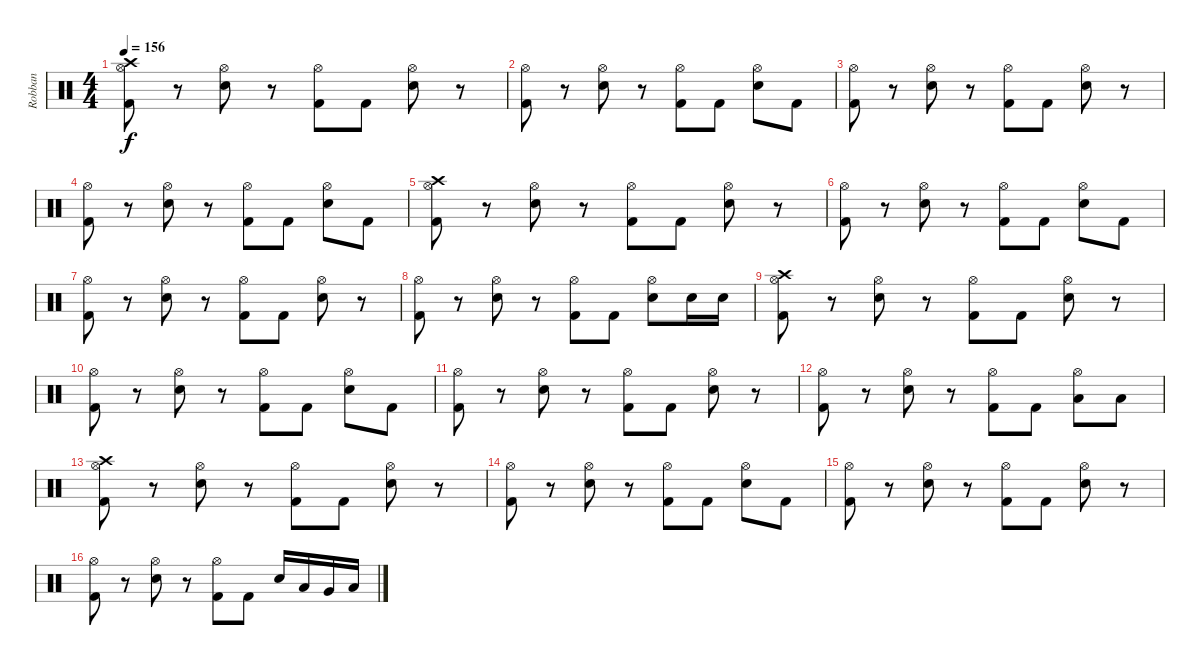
\track ("Robban" "Robban") {instrument percussion}
\staff {score}
\articulation defaults
\ts (4 4)
\tempo 156
\clef neutral
\ks c
("Crash high (hit)" "Hi-Hat (open)" "Kick (hit) 2").8{dy f} r.8 ("Hi-Hat (open)" "Electric Snare (hit)").8 r.8 ("Hi-Hat (open)" "Kick (hit) 2").8 "Kick (hit) 2".8 ("Hi-Hat (open)" "Electric Snare (hit)").8 r.8 |
("Hi-Hat (open)" "Kick (hit) 2").8 r.8 ("Hi-Hat (open)" "Electric Snare (hit)").8 r.8 ("Hi-Hat (open)" "Kick (hit) 2").8 "Kick (hit) 2".8 ("Hi-Hat (open)" "Electric Snare (hit)").8 "Kick (hit) 2".8 |
("Hi-Hat (open)" "Kick (hit) 2").8 r.8 ("Hi-Hat (open)" "Electric Snare (hit)").8 r.8 ("Hi-Hat (open)" "Kick (hit) 2").8 "Kick (hit) 2".8 ("Hi-Hat (open)" "Electric Snare (hit)").8 r.8 |
("Hi-Hat (open)" "Kick (hit) 2").8 r.8 ("Hi-Hat (open)" "Electric Snare (hit)").8 r.8 ("Hi-Hat (open)" "Kick (hit) 2").8 "Kick (hit) 2".8 ("Hi-Hat (open)" "Electric Snare (hit)").8 "Kick (hit) 2".8 |
("Crash high (hit)" "Hi-Hat (open)" "Kick (hit) 2").8 r.8 ("Hi-Hat (open)" "Electric Snare (hit)").8 r.8 ("Hi-Hat (open)" "Kick (hit) 2").8 "Kick (hit) 2".8 ("Hi-Hat (open)" "Electric Snare (hit)").8 r.8 |
("Hi-Hat (open)" "Kick (hit) 2").8 r.8 ("Hi-Hat (open)" "Electric Snare (hit)").8 r.8 ("Hi-Hat (open)" "Kick (hit) 2").8 "Kick (hit) 2".8 ("Hi-Hat (open)" "Electric Snare (hit)").8 "Kick (hit) 2".8 |
("Hi-Hat (open)" "Kick (hit) 2").8 r.8 ("Hi-Hat (open)" "Electric Snare (hit)").8 r.8 ("Hi-Hat (open)" "Kick (hit) 2").8 "Kick (hit) 2".8 ("Hi-Hat (open)" "Electric Snare (hit)").8 r.8 |
("Hi-Hat (open)" "Kick (hit) 2").8 r.8 ("Hi-Hat (open)" "Electric Snare (hit)").8 r.8 ("Hi-Hat (open)" "Kick (hit) 2").8 "Kick (hit) 2".8 ("Hi-Hat (open)" "Electric Snare (hit)").8 "Electric Snare (hit)".16 "Electric Snare (hit)".16 |
("Crash high (hit)" "Hi-Hat (open)" "Kick (hit) 2").8 r.8 ("Hi-Hat (open)" "Electric Snare (hit)").8 r.8 ("Hi-Hat (open)" "Kick (hit) 2").8 "Kick (hit) 2".8 ("Hi-Hat (open)" "Electric Snare (hit)").8 r.8 |
("Hi-Hat (open)" "Kick (hit) 2").8 r.8 ("Hi-Hat (open)" "Electric Snare (hit)").8 r.8 ("Hi-Hat (open)" "Kick (hit) 2").8 "Kick (hit) 2".8 ("Hi-Hat (open)" "Electric Snare (hit)").8 "Kick (hit) 2".8 |
("Hi-Hat (open)" "Kick (hit) 2").8 r.8 ("Hi-Hat (open)" "Electric Snare (hit)").8 r.8 ("Hi-Hat (open)" "Kick (hit) 2").8 "Kick (hit) 2".8 ("Hi-Hat (open)" "Electric Snare (hit)").8 r.8 |
("Hi-Hat (open)" "Kick (hit) 2").8 r.8 ("Hi-Hat (open)" "Electric Snare (hit)").8 r.8 ("Hi-Hat (open)" "Kick (hit) 2").8 "Kick (hit) 2".8 ("Hi-Hat (open)" "Low Tom (hit)").8 "Low Tom (hit)".8 |
("Crash high (hit)" "Hi-Hat (open)" "Kick (hit) 2").8 r.8 ("Hi-Hat (open)" "Electric Snare (hit)").8 r.8 ("Hi-Hat (open)" "Kick (hit) 2").8 "Kick (hit) 2".8 ("Hi-Hat (open)" "Electric Snare (hit)").8 r.8 |
("Hi-Hat (open)" "Kick (hit) 2").8 r.8 ("Hi-Hat (open)" "Electric Snare (hit)").8 r.8 ("Hi-Hat (open)" "Kick (hit) 2").8 "Kick (hit) 2".8 ("Hi-Hat (open)" "Electric Snare (hit)").8 "Kick (hit) 2".8 |
("Hi-Hat (open)" "Kick (hit) 2").8 r.8 ("Hi-Hat (open)" "Electric Snare (hit)").8 r.8 ("Hi-Hat (open)" "Kick (hit) 2").8 "Kick (hit) 2".8 ("Hi-Hat (open)" "Electric Snare (hit)").8 r.8 |
("Hi-Hat (open)" "Kick (hit) 2").8 r.8 ("Hi-Hat (open)" "Electric Snare (hit)").8 r.8 ("Hi-Hat (open)" "Kick (hit) 2").8 "Kick (hit) 2".8 "Electric Snare (hit)".16 "Low Tom (hit)".16 "Very Low Tom (hit)".16 "Low Floor Tom (hit)".16
